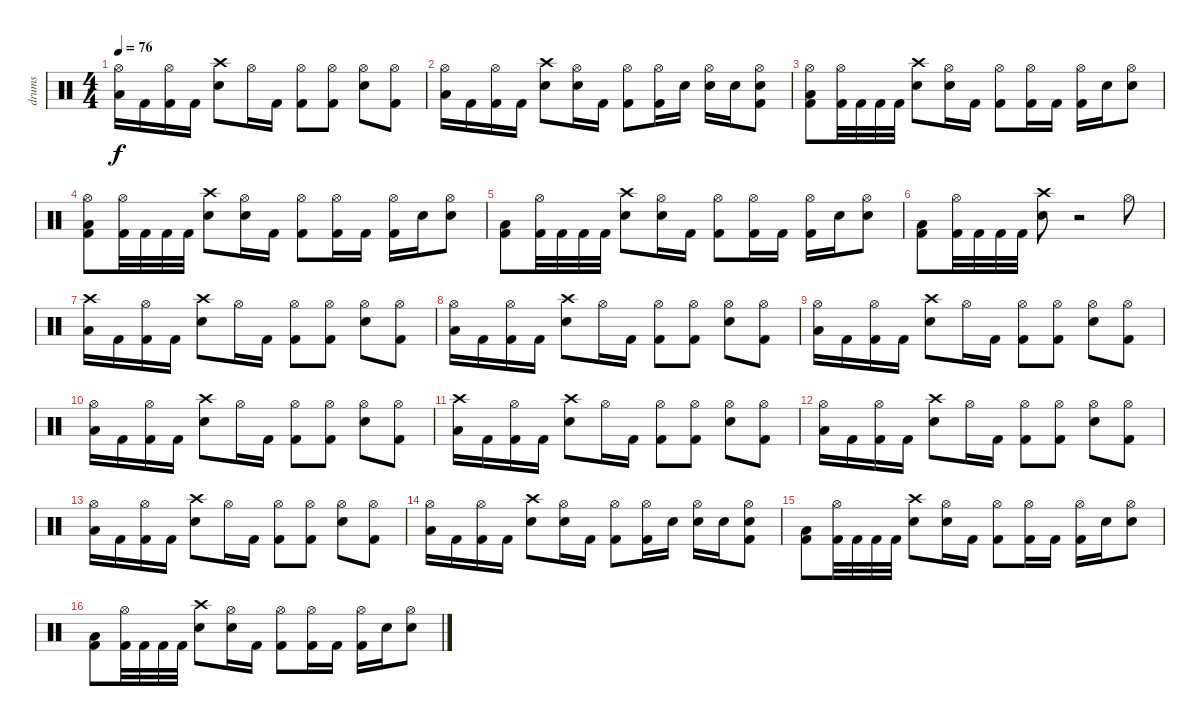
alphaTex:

\track ("drums" "drums") {instrument percussion}
\staff {score}
\articulation defaults
\ts (4 4)
\tempo 76
\clef neutral
\ks c
("Hi-Hat (open)" "Low Tom (hit)").16{dy f} "Kick (hit) 2".16 ("Hi-Hat (open)" "Kick (hit) 2").16 "Kick (hit) 2".16 ("Crash high (hit)" "Electric Snare (hit)").8 "Hi-Hat (open)".16 "Kick (hit) 2".16 ("Hi-Hat (open)" "Kick (hit) 2").8 ("Hi-Hat (open)" "Kick (hit) 2").8 ("Hi-Hat (open)" "Electric Snare (hit)").8 ("Hi-Hat (open)" "Kick (hit) 2").8 |
("Hi-Hat (open)" "Low Tom (hit)").16 "Kick (hit) 2".16 ("Hi-Hat (open)" "Kick (hit) 2").16 "Kick (hit) 2".16 ("Crash high (hit)" "Electric Snare (hit)").8 ("Hi-Hat (open)" "Electric Snare (hit)").16 "Kick (hit) 2".16 ("Hi-Hat (open)" "Kick (hit) 2").8 ("Hi-Hat (open)" "Kick (hit) 2").16 "Electric Snare (hit)".16 ("Hi-Hat (open)" "Electric Snare (hit)").16 "Electric Snare (hit)".16 ("Hi-Hat (open)" "Electric Snare (hit)" "Kick (hit) 2").8 |
("Hi-Hat (open)" "Low Floor Tom (hit)" "Kick (hit) 2").8 ("Hi-Hat (open)" "Kick (hit) 2").32 "Kick (hit) 2".32 "Kick (hit) 2".32 "Kick (hit) 2".32 ("Crash high (hit)" "Electric Snare (hit)").8 ("Hi-Hat (open)" "Electric Snare (hit)").16 "Kick (hit) 2".16 ("Hi-Hat (open)" "Kick (hit) 2").8 ("Hi-Hat (open)" "Kick (hit) 2").16 "Kick (hit) 2".16 ("Hi-Hat (open)" "Kick (hit) 2").16 "Electric Snare (hit)".16 ("Hi-Hat (open)" "Electric Snare (hit)").8 |
("Hi-Hat (open)" "Low Floor Tom (hit)" "Kick (hit) 2").8 ("Hi-Hat (open)" "Kick (hit) 2").32 "Kick (hit) 2".32 "Kick (hit) 2".32 "Kick (hit) 2".32 ("Crash high (hit)" "Electric Snare (hit)").8 ("Hi-Hat (open)" "Electric Snare (hit)").16 "Kick (hit) 2".16 ("Hi-Hat (open)" "Kick (hit) 2").8 ("Hi-Hat (open)" "Kick (hit) 2").16 "Kick (hit) 2".16 ("Hi-Hat (open)" "Kick (hit) 2").16 "Electric Snare (hit)".16 ("Hi-Hat (open)" "Electric Snare (hit)").8 |
("Low Floor Tom (hit)" "Kick (hit) 2").8 ("Hi-Hat (open)" "Kick (hit) 2").32 "Kick (hit) 2".32 "Kick (hit) 2".32 "Kick (hit) 2".32 ("Crash high (hit)" "Electric Snare (hit)").8 ("Hi-Hat (open)" "Electric Snare (hit)").16 "Kick (hit) 2".16 ("Hi-Hat (open)" "Kick (hit) 2").8 ("Hi-Hat (open)" "Kick (hit) 2").16 "Kick (hit) 2".16 ("Hi-Hat (open)" "Kick (hit) 2").16 "Electric Snare (hit)".16 ("Hi-Hat (open)" "Electric Snare (hit)").8 |
("Low Floor Tom (hit)" "Kick (hit) 2").8 ("Hi-Hat (open)" "Kick (hit) 2").32 "Kick (hit) 2".32 "Kick (hit) 2".32 "Kick (hit) 2".32 ("Crash high (hit)" "Electric Snare (hit)").8 r.2 "Hi-Hat (open)".8 |
("Crash high (hit)" "Low Tom (hit)").16 "Kick (hit) 2".16 ("Hi-Hat (open)" "Kick (hit) 2").16 "Kick (hit) 2".16 ("Crash high (hit)" "Electric Snare (hit)").8 "Hi-Hat (open)".16 "Kick (hit) 2".16 ("Hi-Hat (open)" "Kick (hit) 2").8 ("Hi-Hat (open)" "Kick (hit) 2").8 ("Hi-Hat (open)" "Electric Snare (hit)").8 ("Hi-Hat (open)" "Kick (hit) 2").8 |
("Hi-Hat (open)" "Low Tom (hit)").16 "Kick (hit) 2".16 ("Hi-Hat (open)" "Kick (hit) 2").16 "Kick (hit) 2".16 ("Crash high (hit)" "Electric Snare (hit)").8 "Hi-Hat (open)".16 "Kick (hit) 2".16 ("Hi-Hat (open)" "Kick (hit) 2").8 ("Hi-Hat (open)" "Kick (hit) 2").8 ("Hi-Hat (open)" "Electric Snare (hit)").8 ("Hi-Hat (open)" "Kick (hit) 2").8 |
("Hi-Hat (open)" "Low Tom (hit)").16 "Kick (hit) 2".16 ("Hi-Hat (open)" "Kick (hit) 2").16 "Kick (hit) 2".16 ("Crash high (hit)" "Electric Snare (hit)").8 "Hi-Hat (open)".16 "Kick (hit) 2".16 ("Hi-Hat (open)" "Kick (hit) 2").8 ("Hi-Hat (open)" "Kick (hit) 2").8 ("Hi-Hat (open)" "Electric Snare (hit)").8 ("Hi-Hat (open)" "Kick (hit) 2").8 |
("Hi-Hat (open)" "Low Tom (hit)").16 "Kick (hit) 2".16 ("Hi-Hat (open)" "Kick (hit) 2").16 "Kick (hit) 2".16 ("Crash high (hit)" "Electric Snare (hit)").8 "Hi-Hat (open)".16 "Kick (hit) 2".16 ("Hi-Hat (open)" "Kick (hit) 2").8 ("Hi-Hat (open)" "Kick (hit) 2").8 ("Hi-Hat (open)" "Electric Snare (hit)").8 ("Hi-Hat (open)" "Kick (hit) 2").8 |
("Crash high (hit)" "Low Tom (hit)").16 "Kick (hit) 2".16 ("Hi-Hat (open)" "Kick (hit) 2").16 "Kick (hit) 2".16 ("Crash high (hit)" "Electric Snare (hit)").8 "Hi-Hat (open)".16 "Kick (hit) 2".16 ("Hi-Hat (open)" "Kick (hit) 2").8 ("Hi-Hat (open)" "Kick (hit) 2").8 ("Hi-Hat (open)" "Electric Snare (hit)").8 ("Hi-Hat (open)" "Kick (hit) 2").8 |
("Hi-Hat (open)" "Low Tom (hit)").16 "Kick (hit) 2".16 ("Hi-Hat (open)" "Kick (hit) 2").16 "Kick (hit) 2".16 ("Crash high (hit)" "Electric Snare (hit)").8 "Hi-Hat (open)".16 "Kick (hit) 2".16 ("Hi-Hat (open)" "Kick (hit) 2").8 ("Hi-Hat (open)" "Kick (hit) 2").8 ("Hi-Hat (open)" "Electric Snare (hit)").8 ("Hi-Hat (open)" "Kick (hit) 2").8 |
("Hi-Hat (open)" "Low Tom (hit)").16 "Kick (hit) 2".16 ("Hi-Hat (open)" "Kick (hit) 2").16 "Kick (hit) 2".16 ("Crash high (hit)" "Electric Snare (hit)").8 "Hi-Hat (open)".16 "Kick (hit) 2".16 ("Hi-Hat (open)" "Kick (hit) 2").8 ("Hi-Hat (open)" "Kick (hit) 2").8 ("Hi-Hat (open)" "Electric Snare (hit)").8 ("Hi-Hat (open)" "Kick (hit) 2").8 |
("Hi-Hat (open)" "Low Tom (hit)").16 "Kick (hit) 2".16 ("Hi-Hat (open)" "Kick (hit) 2").16 "Kick (hit) 2".16 ("Crash high (hit)" "Electric Snare (hit)").8 ("Hi-Hat (open)" "Electric Snare (hit)").16 "Kick (hit) 2".16 ("Hi-Hat (open)" "Kick (hit) 2").8 ("Hi-Hat (open)" "Kick (hit) 2").16 "Electric Snare (hit)".16 ("Hi-Hat (open)" "Electric Snare (hit)").16 "Electric Snare (hit)".16 ("Hi-Hat (open)" "Electric Snare (hit)" "Kick (hit) 2").8 |
("Low Floor Tom (hit)" "Kick (hit) 2").8 ("Hi-Hat (open)" "Kick (hit) 2").32 "Kick (hit) 2".32 "Kick (hit) 2".32 "Kick (hit) 2".32 ("Crash high (hit)" "Electric Snare (hit)").8 ("Hi-Hat (open)" "Electric Snare (hit)").16 "Kick (hit) 2".16 ("Hi-Hat (open)" "Kick (hit) 2").8 ("Hi-Hat (open)" "Kick (hit) 2").16 "Kick (hit) 2".16 ("Hi-Hat (open)" "Kick (hit) 2").16 "Electric Snare (hit)".16 ("Hi-Hat (open)" "Electric Snare (hit)").8 |
("Low Floor Tom (hit)" "Kick (hit) 2").8 ("Hi-Hat (open)" "Kick (hit) 2").32 "Kick (hit) 2".32 "Kick (hit) 2".32 "Kick (hit) 2".32 ("Crash high (hit)" "Electric Snare (hit)").8 ("Hi-Hat (open)" "Electric Snare (hit)").16 "Kick (hit) 2".16 ("Hi-Hat (open)" "Kick (hit) 2").8 ("Hi-Hat (open)" "Kick (hit) 2").16 "Kick (hit) 2".16 ("Hi-Hat (open)" "Kick (hit) 2").16 "Electric Snare (hit)".16 ("Hi-Hat (open)" "Electric Snare (hit)").8
